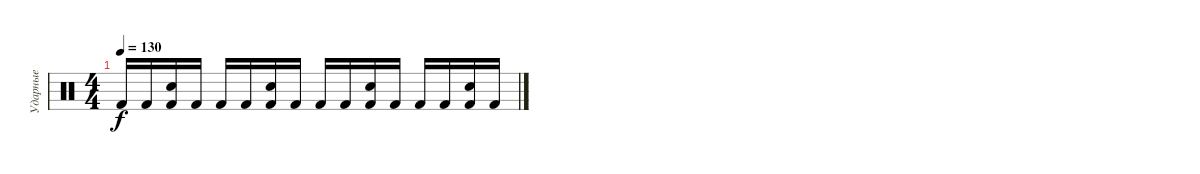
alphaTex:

\track ("Ударные" "Ударные") {instrument percussion}
\staff {score}
\articulation defaults
\ts (4 4)
\tempo 130
\clef neutral
\ks c "Kick (hit) 2".16{dy f} "Kick (hit) 2".16
("Snare (hit) 2" "Kick (hit) 2").16 "Kick (hit) 2".16 "Kick (hit) 2".16 "Kick (hit) 2".16 ("Snare (hit) 2" "Kick (hit) 2").16 "Kick (hit) 2".16 "Kick (hit) 2".16 "Kick (hit) 2".16 ("Snare (hit) 2" "Kick (hit) 2").16 "Kick (hit) 2".16 "Kick (hit) 2".16 "Kick (hit) 2".16 ("Snare (hit) 2" "Kick (hit) 2").16 "Kick (hit) 2".16
